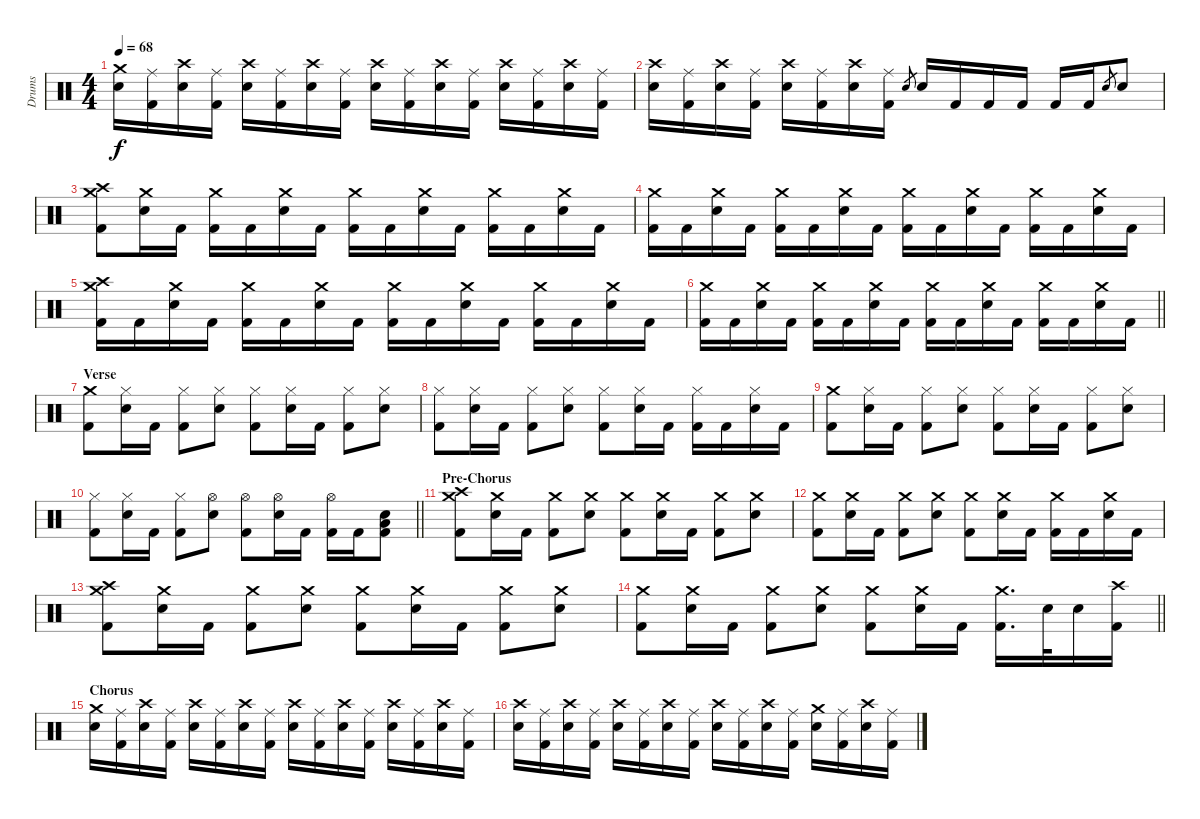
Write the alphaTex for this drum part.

\track ("Drums" "Drums") {instrument percussion}
\staff {score}
\articulation defaults
\ts (4 4)
\tempo 68
\clef neutral
\ks c
("Crash medium (hit)" "Electric Snare (hit)").16{dy f} ("Ride (middle)" "Kick (hit) 2").16 ("Crash high (hit)" "Electric Snare (hit)").16 ("Ride (middle)" "Kick (hit) 2").16 ("Crash high (hit)" "Electric Snare (hit)").16 ("Ride (middle)" "Kick (hit) 2").16 ("Crash high (hit)" "Electric Snare (hit)").16 ("Ride (middle)" "Kick (hit) 2").16 ("Crash high (hit)" "Electric Snare (hit)").16 ("Ride (middle)" "Kick (hit) 2").16 ("Crash high (hit)" "Electric Snare (hit)").16 ("Ride (middle)" "Kick (hit) 2").16 ("Crash high (hit)" "Electric Snare (hit)").16 ("Ride (middle)" "Kick (hit) 2").16 ("Crash high (hit)" "Electric Snare (hit)").16 ("Ride (middle)" "Kick (hit) 2").16 |
("Crash high (hit)" "Electric Snare (hit)").16 ("Ride (middle)" "Kick (hit) 2").16 ("Crash high (hit)" "Electric Snare (hit)").16 ("Ride (middle)" "Kick (hit) 2").16 ("Crash high (hit)" "Electric Snare (hit)").16 ("Ride (middle)" "Kick (hit) 2").16 ("Crash high (hit)" "Electric Snare (hit)").16 ("Ride (middle)" "Kick (hit) 2").16 "Electric Snare (hit)".8{gr} "Electric Snare (hit)".16 "Kick (hit) 2".16 "Kick (hit) 2".16 "Kick (hit) 2".16 "Kick (hit) 2".16 "Kick (hit) 2".16 "Electric Snare (hit)".8{gr} "Electric Snare (hit)".8 |
("Crash medium (hit)" "Crash high (hit)" "Kick (hit) 2").8 ("Crash medium (hit)" "Electric Snare (hit)").16 "Kick (hit) 2".16 ("Crash medium (hit)" "Kick (hit) 2").16 "Kick (hit) 2".16 ("Crash medium (hit)" "Electric Snare (hit)").16 "Kick (hit) 2".16 ("Crash medium (hit)" "Kick (hit) 2").16 "Kick (hit) 2".16 ("Crash medium (hit)" "Electric Snare (hit)").16 "Kick (hit) 2".16 ("Crash medium (hit)" "Kick (hit) 2").16 "Kick (hit) 2".16 ("Crash medium (hit)" "Electric Snare (hit)").16 "Kick (hit) 2".16 |
("Crash medium (hit)" "Kick (hit) 2").16 "Kick (hit) 2".16 ("Crash medium (hit)" "Electric Snare (hit)").16 "Kick (hit) 2".16 ("Crash medium (hit)" "Kick (hit) 2").16 "Kick (hit) 2".16 ("Crash medium (hit)" "Electric Snare (hit)").16 "Kick (hit) 2".16 ("Crash medium (hit)" "Kick (hit) 2").16 "Kick (hit) 2".16 ("Crash medium (hit)" "Electric Snare (hit)").16 "Kick (hit) 2".16 ("Crash medium (hit)" "Kick (hit) 2").16 "Kick (hit) 2".16 ("Crash medium (hit)" "Electric Snare (hit)").16 "Kick (hit) 2".16 |
("Crash medium (hit)" "Crash high (hit)" "Kick (hit) 2").16 "Kick (hit) 2".16 ("Crash medium (hit)" "Electric Snare (hit)").16 "Kick (hit) 2".16 ("Crash medium (hit)" "Kick (hit) 2").16 "Kick (hit) 2".16 ("Crash medium (hit)" "Electric Snare (hit)").16 "Kick (hit) 2".16 ("Crash medium (hit)" "Kick (hit) 2").16 "Kick (hit) 2".16 ("Crash medium (hit)" "Electric Snare (hit)").16 "Kick (hit) 2".16 ("Crash medium (hit)" "Kick (hit) 2").16 "Kick (hit) 2".16 ("Crash medium (hit)" "Electric Snare (hit)").16 "Kick (hit) 2".16 |
\barLineRight lightlight
("Crash medium (hit)" "Kick (hit) 2").16 "Kick (hit) 2".16 ("Crash medium (hit)" "Electric Snare (hit)").16 "Kick (hit) 2".16 ("Crash medium (hit)" "Kick (hit) 2").16 "Kick (hit) 2".16 ("Crash medium (hit)" "Electric Snare (hit)").16 "Kick (hit) 2".16 ("Crash medium (hit)" "Kick (hit) 2").16 "Kick (hit) 2".16 ("Crash medium (hit)" "Electric Snare (hit)").16 "Kick (hit) 2".16 ("Crash medium (hit)" "Kick (hit) 2").16 "Kick (hit) 2".16 ("Crash medium (hit)" "Electric Snare (hit)").16 "Kick (hit) 2".16 |
\section ("" "Verse")
("Crash medium (hit)" "Kick (hit) 2").8 ("Hi-Hat (closed)" "Electric Snare (hit)").16 "Kick (hit) 2".16 ("Hi-Hat (closed)" "Kick (hit) 2").8 ("Hi-Hat (closed)" "Electric Snare (hit)").8 ("Hi-Hat (closed)" "Kick (hit) 2").8 ("Hi-Hat (closed)" "Electric Snare (hit)").16 "Kick (hit) 2".16 ("Hi-Hat (closed)" "Kick (hit) 2").8 ("Hi-Hat (closed)" "Electric Snare (hit)").8 |
("Hi-Hat (closed)" "Kick (hit) 2").8 ("Hi-Hat (closed)" "Electric Snare (hit)").16 "Kick (hit) 2".16 ("Hi-Hat (closed)" "Kick (hit) 2").8 ("Hi-Hat (closed)" "Electric Snare (hit)").8 ("Hi-Hat (closed)" "Kick (hit) 2").8 ("Hi-Hat (closed)" "Electric Snare (hit)").16 "Kick (hit) 2".16 ("Hi-Hat (closed)" "Kick (hit) 2").16 "Kick (hit) 2".16 ("Hi-Hat (closed)" "Electric Snare (hit)").16 "Kick (hit) 2".16 |
("Crash medium (hit)" "Kick (hit) 2").8 ("Hi-Hat (closed)" "Electric Snare (hit)").16 "Kick (hit) 2".16 ("Hi-Hat (closed)" "Kick (hit) 2").8 ("Hi-Hat (closed)" "Electric Snare (hit)").8 ("Hi-Hat (closed)" "Kick (hit) 2").8 ("Hi-Hat (closed)" "Electric Snare (hit)").16 "Kick (hit) 2".16 ("Hi-Hat (closed)" "Kick (hit) 2").8 ("Hi-Hat (closed)" "Electric Snare (hit)").8 |
\barLineRight lightlight
("Hi-Hat (closed)" "Kick (hit) 2").8 ("Hi-Hat (closed)" "Electric Snare (hit)").16 "Kick (hit) 2".16 ("Hi-Hat (closed)" "Kick (hit) 2").8 ("Hi-Hat (open)" "Electric Snare (hit)").8 ("Hi-Hat (open)" "Kick (hit) 2").8 ("Hi-Hat (open)" "Electric Snare (hit)").16 "Kick (hit) 2".16 ("Hi-Hat (open)" "Kick (hit) 2").16 "Kick (hit) 2".16 ("Low Floor Tom (hit)" "Electric Snare (hit)" "Kick (hit) 2").8 |
\section ("" "Pre-Chorus")
("Crash medium (hit)" "Crash high (hit)" "Kick (hit) 2").8 ("Crash medium (hit)" "Electric Snare (hit)").16 "Kick (hit) 2".16 ("Crash medium (hit)" "Kick (hit) 2").8 ("Crash medium (hit)" "Electric Snare (hit)").8 ("Crash medium (hit)" "Kick (hit) 2").8 ("Crash medium (hit)" "Electric Snare (hit)").16 "Kick (hit) 2".16 ("Crash medium (hit)" "Kick (hit) 2").8 ("Crash medium (hit)" "Electric Snare (hit)").8 |
("Crash medium (hit)" "Kick (hit) 2").8 ("Crash medium (hit)" "Electric Snare (hit)").16 "Kick (hit) 2".16 ("Crash medium (hit)" "Kick (hit) 2").8 ("Crash medium (hit)" "Electric Snare (hit)").8 ("Crash medium (hit)" "Kick (hit) 2").8 ("Crash medium (hit)" "Electric Snare (hit)").16 "Kick (hit) 2".16 ("Crash medium (hit)" "Kick (hit) 2").16 "Kick (hit) 2".16 ("Crash medium (hit)" "Electric Snare (hit)").16 "Kick (hit) 2".16 |
("Crash medium (hit)" "Crash high (hit)" "Kick (hit) 2").8 ("Crash medium (hit)" "Electric Snare (hit)").16 "Kick (hit) 2".16 ("Crash medium (hit)" "Kick (hit) 2").8 ("Crash medium (hit)" "Electric Snare (hit)").8 ("Crash medium (hit)" "Kick (hit) 2").8 ("Crash medium (hit)" "Electric Snare (hit)").16 "Kick (hit) 2".16 ("Crash medium (hit)" "Kick (hit) 2").8 ("Crash medium (hit)" "Electric Snare (hit)").8 |
\barLineRight lightlight
("Crash medium (hit)" "Kick (hit) 2").8 ("Crash medium (hit)" "Electric Snare (hit)").16 "Kick (hit) 2".16 ("Crash medium (hit)" "Kick (hit) 2").8 ("Crash medium (hit)" "Electric Snare (hit)").8 ("Crash medium (hit)" "Kick (hit) 2").8 ("Crash medium (hit)" "Electric Snare (hit)").16 "Kick (hit) 2".16 ("Crash medium (hit)" "Kick (hit) 2").16{d} "Electric Snare (hit)".32 "Electric Snare (hit)".16 ("Crash high (hit)" "Kick (hit) 2").16 |
\section ("" "Chorus")
("Crash medium (hit)" "Electric Snare (hit)").16 ("Ride (middle)" "Kick (hit) 2").16 ("Crash high (hit)" "Electric Snare (hit)").16 ("Ride (middle)" "Kick (hit) 2").16 ("Crash high (hit)" "Electric Snare (hit)").16 ("Ride (middle)" "Kick (hit) 2").16 ("Crash high (hit)" "Electric Snare (hit)").16 ("Ride (middle)" "Kick (hit) 2").16 ("Crash high (hit)" "Electric Snare (hit)").16 ("Ride (middle)" "Kick (hit) 2").16 ("Crash high (hit)" "Electric Snare (hit)").16 ("Ride (middle)" "Kick (hit) 2").16 ("Crash high (hit)" "Electric Snare (hit)").16 ("Ride (middle)" "Kick (hit) 2").16 ("Crash high (hit)" "Electric Snare (hit)").16 ("Ride (middle)" "Kick (hit) 2").16 |
("Crash high (hit)" "Electric Snare (hit)").16 ("Ride (middle)" "Kick (hit) 2").16 ("Crash high (hit)" "Electric Snare (hit)").16 ("Ride (middle)" "Kick (hit) 2").16 ("Crash high (hit)" "Electric Snare (hit)").16 ("Ride (middle)" "Kick (hit) 2").16 ("Crash high (hit)" "Electric Snare (hit)").16 ("Ride (middle)" "Kick (hit) 2").16 ("Crash high (hit)" "Electric Snare (hit)").16 ("Ride (middle)" "Kick (hit) 2").16 ("Crash high (hit)" "Electric Snare (hit)").16 ("Ride (middle)" "Kick (hit) 2").16 ("Crash medium (hit)" "Electric Snare (hit)").16 ("Ride (middle)" "Kick (hit) 2").16 ("Crash high (hit)" "Electric Snare (hit)").16 ("Ride (middle)" "Kick (hit) 2").16
